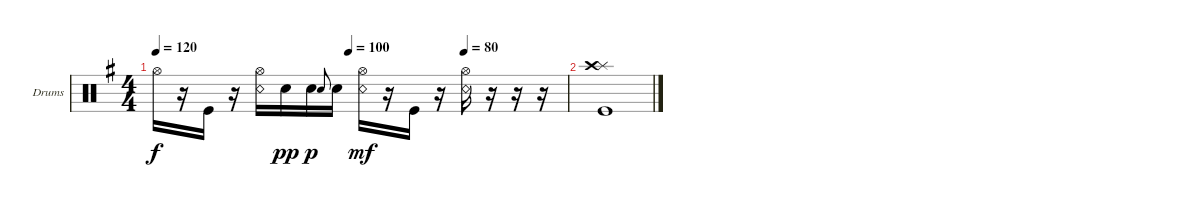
\bracketExtendMode groupsimilarinstruments
\firstSystemTrackNameOrientation horizontal
\otherSystemsTrackNameOrientation horizontal
\track ("Drumkit" "Drums") {instrument percussion}
\staff {score}
\articulation defaults
\ts (4 4)
\tempo 120
\tempo (100 0.46875)
\tempo (80 0.75)
\clef neutral
\ks g "Hi-Hat (open)".16{dy f}
r.16 "Kick (hit)".16 r.16 ("Snare (rim shot)" "Hi-Hat (open)").16 "Snare (hit) 2".16{dy pp} "Snare (hit) 2".16{dy p} "Snare (hit) 2".8{gr onbeat} "Snare (hit) 2".16 ("Snare (rim shot)" "Hi-Hat (open)").16{dy mf} r.16 "Kick (hit)".16 r.16 ("Snare (rim shot)" "Hi-Hat (open)").16 r.16 r.16 r.16 |
("Kick (hit)" "Splash (hit)" "Crash high (hit)").1
